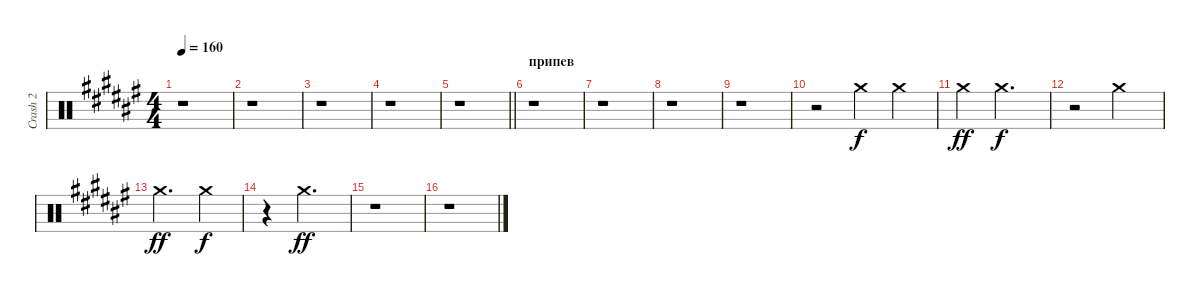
\track ("Crash 2" "Crash 2") {instrument percussion}
\staff {score}
\articulation defaults
\ts (4 4)
\tempo 160
\clef neutral
\ks d#minor
r.1{dy ff} |
r.1 |
r.1 |
r.1 |
\barLineRight lightlight
r.1 |
\section ("" "припев")
r.1 |
r.1 |
r.1 |
r.1 |
r.2 "Crash medium (hit)".4{dy f} "Crash medium (hit)".4 |
"Crash medium (hit)".4{dy ff} "Crash medium (hit)".2{d dy f} |
r.2 "Crash medium (hit)".2 |
"Crash medium (hit)".2{d dy ff} "Crash medium (hit)".4{dy f} |
r.4 "Crash medium (hit)".2{d dy ff} |
r.1 |
r.1
